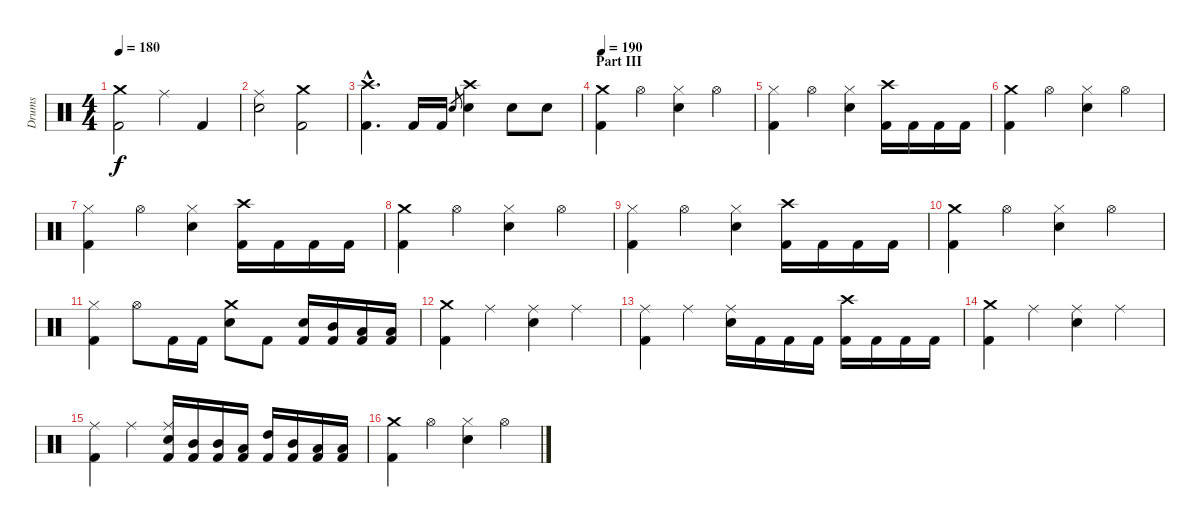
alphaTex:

\track ("Drums" "Drums") {instrument percussion}
\staff {score}
\articulation defaults
\ts (4 4)
\tempo 180
\clef neutral
\ks c
("Kick (hit) 2" "Crash medium (hit)").2{dy f} "Ride (middle)".4 "Kick (hit) 2".4 |
("Electric Snare (hit)" "Ride (middle)").2 ("Kick (hit) 2" "Crash medium (hit)").2 |
("Kick (hit) 2"{hac} "Crash high (hit)"{hac}).4{d} "Kick (hit) 2".16 "Kick (hit) 2".16 "Electric Snare (hit)".8{gr} ("Electric Snare (hit)" "Crash high (hit)").4 "Electric Snare (hit)".8 "Electric Snare (hit)".8 |
\section ("" "Part III")
\tempo 190
("Kick (hit) 2" "Crash medium (hit)").4 "Hi-Hat (open)".4 ("Electric Snare (hit)" "Hi-Hat (closed)").4 "Hi-Hat (open)".4 |
("Kick (hit) 2" "Hi-Hat (closed)").4 "Hi-Hat (open)".4 ("Electric Snare (hit)" "Hi-Hat (closed)").4 ("Kick (hit) 2" "Crash high (hit)").16 "Kick (hit) 2".16 "Kick (hit) 2".16 "Kick (hit) 2".16 |
("Kick (hit) 2" "Crash medium (hit)").4 "Hi-Hat (open)".4 ("Electric Snare (hit)" "Hi-Hat (closed)").4 "Hi-Hat (open)".4 |
("Kick (hit) 2" "Hi-Hat (closed)").4 "Hi-Hat (open)".4 ("Electric Snare (hit)" "Hi-Hat (closed)").4 ("Kick (hit) 2" "Crash high (hit)").16 "Kick (hit) 2".16 "Kick (hit) 2".16 "Kick (hit) 2".16 |
("Kick (hit) 2" "Crash medium (hit)").4 "Hi-Hat (open)".4 ("Electric Snare (hit)" "Hi-Hat (closed)").4 "Hi-Hat (open)".4 |
("Kick (hit) 2" "Hi-Hat (closed)").4 "Hi-Hat (open)".4 ("Electric Snare (hit)" "Hi-Hat (closed)").4 ("Kick (hit) 2" "Crash high (hit)").16 "Kick (hit) 2".16 "Kick (hit) 2".16 "Kick (hit) 2".16 |
("Kick (hit) 2" "Crash medium (hit)").4 "Hi-Hat (open)".4 ("Electric Snare (hit)" "Hi-Hat (closed)").4 "Hi-Hat (open)".4 |
("Kick (hit) 2" "Hi-Hat (closed)").4 "Hi-Hat (open)".8 "Kick (hit) 2".16 "Kick (hit) 2".16 ("Electric Snare (hit)" "Crash medium (hit)").8 "Kick (hit) 2".8 ("Kick (hit) 2" "Electric Snare (hit)").16 ("Kick (hit) 2" "Mid Tom (hit)").16 ("Kick (hit) 2" "Low Tom (hit)").16 ("Kick (hit) 2" "Low Tom (hit)").16 |
("Kick (hit) 2" "Crash medium (hit)").4 "Ride (middle)".4 ("Electric Snare (hit)" "Ride (middle)").4 "Ride (middle)".4 |
("Kick (hit) 2" "Ride (middle)").4 "Ride (middle)".4 ("Electric Snare (hit)" "Ride (middle)").16 "Kick (hit) 2".16 "Kick (hit) 2".16 "Kick (hit) 2".16 ("Kick (hit) 2" "Crash high (hit)").16 "Kick (hit) 2".16 "Kick (hit) 2".16 "Kick (hit) 2".16 |
("Kick (hit) 2" "Crash medium (hit)").4 "Ride (middle)".4 ("Electric Snare (hit)" "Ride (middle)").4 "Ride (middle)".4 |
("Kick (hit) 2" "Ride (middle)").4 "Ride (middle)".4 ("Kick (hit) 2" "Electric Snare (hit)" "Ride (middle)").16 ("Kick (hit) 2" "Mid Tom (hit)").16 ("Kick (hit) 2" "Mid Tom (hit)").16 ("Kick (hit) 2" "Low Tom (hit)").16 ("Kick (hit) 2" "High Tom (hit)").16 ("Kick (hit) 2" "Mid Tom (hit)").16 ("Kick (hit) 2" "Low Tom (hit)").16 ("Kick (hit) 2" "Low Tom (hit)").16 |
("Kick (hit) 2" "Crash medium (hit)").4 "Hi-Hat (open)".4 ("Electric Snare (hit)" "Hi-Hat (closed)").4 "Hi-Hat (open)".4
